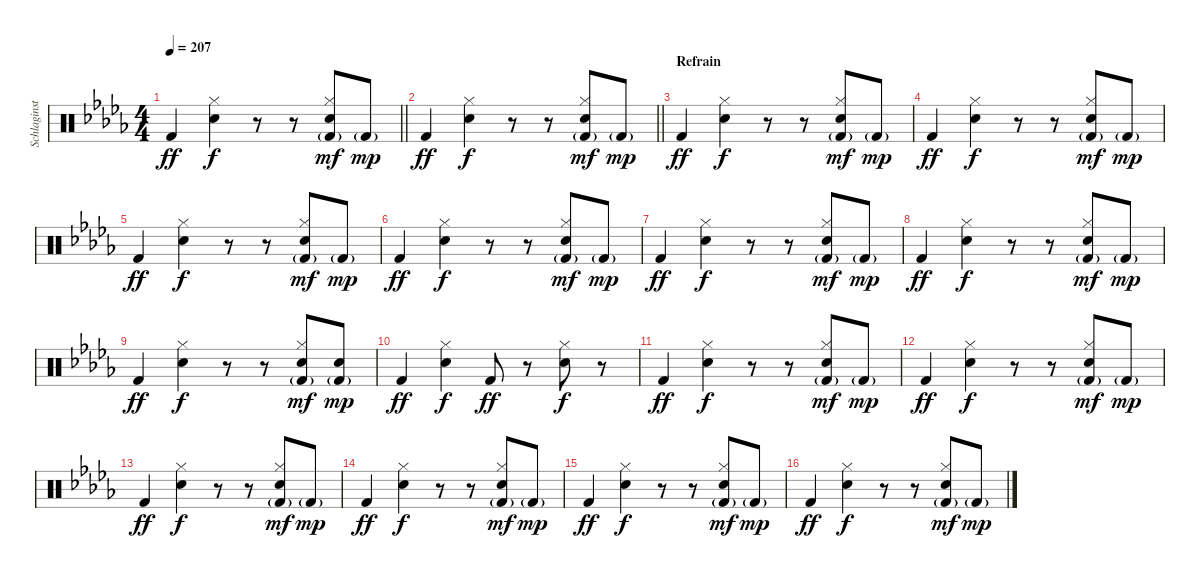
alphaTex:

\track ("Schlaginstrumente - Auswahl" "Schlaginst") {instrument percussion}
\staff {score}
\articulation defaults
\ts (4 4)
\tempo 207
\clef neutral
\barLineRight lightlight
\ks bbminor "Kick (hit) 2".4{dy ff}
("Hi-Hat (closed)" "Snare (hit) 2").4{dy f} r.8 r.8 ("Hi-Hat (closed)" "Snare (hit) 2" "Kick (hit) 2"{g}).8{dy mf} "Kick (hit) 2"{g}.8{dy mp} |
\barLineRight lightlight "Kick (hit) 2".4{dy ff}
("Hi-Hat (closed)" "Snare (hit) 2").4{dy f} r.8 r.8 ("Hi-Hat (closed)" "Snare (hit) 2" "Kick (hit) 2"{g}).8{dy mf} "Kick (hit) 2"{g}.8{dy mp} |
\section ("" "Refrain")
"Kick (hit) 2".4{dy ff} ("Hi-Hat (closed)" "Snare (hit) 2").4{dy f} r.8 r.8 ("Hi-Hat (closed)" "Snare (hit) 2" "Kick (hit) 2"{g}).8{dy mf} "Kick (hit) 2"{g}.8{dy mp} |
"Kick (hit) 2".4{dy ff} ("Hi-Hat (closed)" "Snare (hit) 2").4{dy f} r.8 r.8 ("Hi-Hat (closed)" "Snare (hit) 2" "Kick (hit) 2"{g}).8{dy mf} "Kick (hit) 2"{g}.8{dy mp} |
"Kick (hit) 2".4{dy ff} ("Hi-Hat (closed)" "Snare (hit) 2").4{dy f} r.8 r.8 ("Hi-Hat (closed)" "Snare (hit) 2" "Kick (hit) 2"{g}).8{dy mf} "Kick (hit) 2"{g}.8{dy mp} |
"Kick (hit) 2".4{dy ff} ("Hi-Hat (closed)" "Snare (hit) 2").4{dy f} r.8 r.8 ("Hi-Hat (closed)" "Snare (hit) 2" "Kick (hit) 2"{g}).8{dy mf} "Kick (hit) 2"{g}.8{dy mp} |
"Kick (hit) 2".4{dy ff} ("Hi-Hat (closed)" "Snare (hit) 2").4{dy f} r.8 r.8 ("Hi-Hat (closed)" "Snare (hit) 2" "Kick (hit) 2"{g}).8{dy mf} "Kick (hit) 2"{g}.8{dy mp} |
"Kick (hit) 2".4{dy ff} ("Hi-Hat (closed)" "Snare (hit) 2").4{dy f} r.8 r.8 ("Hi-Hat (closed)" "Snare (hit) 2" "Kick (hit) 2"{g}).8{dy mf} "Kick (hit) 2"{g}.8{dy mp} |
"Kick (hit) 2".4{dy ff} ("Hi-Hat (closed)" "Snare (hit) 2").4{dy f} r.8 r.8 ("Hi-Hat (closed)" "Snare (hit) 2" "Kick (hit) 2"{g}).8{dy mf} ("Snare (hit) 2" "Kick (hit) 2"{g}).8{dy mp} |
"Kick (hit) 2".4{dy ff} ("Hi-Hat (closed)" "Snare (hit) 2").4{dy f} "Kick (hit) 2".8{dy ff} r.8 ("Hi-Hat (closed)" "Snare (hit) 2").8{dy f} r.8 |
"Kick (hit) 2".4{dy ff} ("Hi-Hat (closed)" "Snare (hit) 2").4{dy f} r.8 r.8 ("Hi-Hat (closed)" "Snare (hit) 2" "Kick (hit) 2"{g}).8{dy mf} "Kick (hit) 2"{g}.8{dy mp} |
"Kick (hit) 2".4{dy ff} ("Hi-Hat (closed)" "Snare (hit) 2").4{dy f} r.8 r.8 ("Hi-Hat (closed)" "Snare (hit) 2" "Kick (hit) 2"{g}).8{dy mf} "Kick (hit) 2"{g}.8{dy mp} |
"Kick (hit) 2".4{dy ff} ("Hi-Hat (closed)" "Snare (hit) 2").4{dy f} r.8 r.8 ("Hi-Hat (closed)" "Snare (hit) 2" "Kick (hit) 2"{g}).8{dy mf} "Kick (hit) 2"{g}.8{dy mp} |
"Kick (hit) 2".4{dy ff} ("Hi-Hat (closed)" "Snare (hit) 2").4{dy f} r.8 r.8 ("Hi-Hat (closed)" "Snare (hit) 2" "Kick (hit) 2"{g}).8{dy mf} "Kick (hit) 2"{g}.8{dy mp} |
"Kick (hit) 2".4{dy ff} ("Hi-Hat (closed)" "Snare (hit) 2").4{dy f} r.8 r.8 ("Hi-Hat (closed)" "Snare (hit) 2" "Kick (hit) 2"{g}).8{dy mf} "Kick (hit) 2"{g}.8{dy mp} |
"Kick (hit) 2".4{dy ff} ("Hi-Hat (closed)" "Snare (hit) 2").4{dy f} r.8 r.8 ("Hi-Hat (closed)" "Snare (hit) 2" "Kick (hit) 2"{g}).8{dy mf} "Kick (hit) 2"{g}.8{dy mp}
